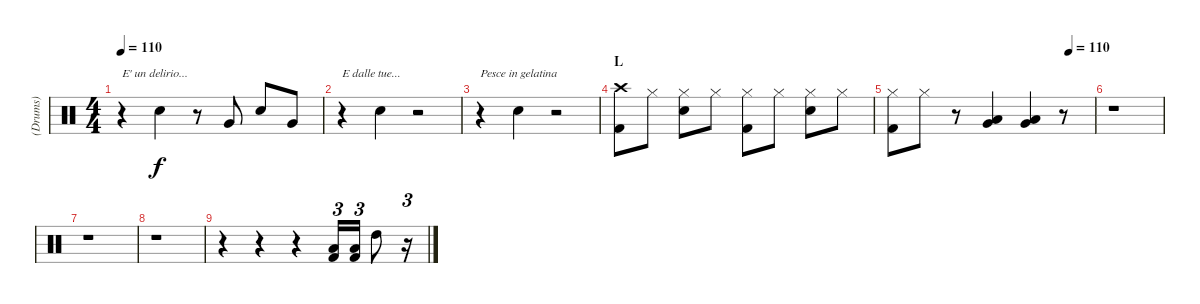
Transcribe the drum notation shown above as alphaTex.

\track ("(Drums)" "(Drums)") {instrument percussion}
\staff {score}
\articulation defaults
\ts (4 4)
\tempo 110
\clef neutral
\ks c
r.4{txt "E' un delirio..." dy f} "Hand Clap (hit)".4 r.8 "Very Low Tom (hit)".8 "Electric Snare (hit)".8 "Very Low Tom (hit)".8 |
r.4{txt "E dalle tue..."} "Hand Clap (hit)".4 r.2 |
r.4{txt "Pesce in gelatina"} "Hand Clap (hit)".4 r.2 |
\section ("" "L")
("Crash high (hit)" "Kick (hit) 2").8 "Hi-Hat (closed)".8 ("Hi-Hat (closed)" "Electric Snare (hit)").8 "Hi-Hat (closed)".8 ("Hi-Hat (closed)" "Kick (hit) 2").8 "Hi-Hat (closed)".8 ("Hi-Hat (closed)" "Electric Snare (hit)").8 "Hi-Hat (closed)".8 |
\tempo (110 0.875)
("Hi-Hat (closed)" "Kick (hit) 2").8 "Hi-Hat (closed)".8 r.8 ("Low Tom (hit)" "Very Low Tom (hit)").4 ("Very Low Tom (hit)" "Low Tom (hit)").4 r.8 |
r.1 |
r.1 |
r.1 |
r.4 r.4 r.4 ("Kick (hit) 2" "Low Tom (hit)").16{tu (3 2)} ("Kick (hit) 2" "Low Tom (hit)").16{tu (3 2)} "High Tom (hit)".8 r.16{tu (3 2)}
